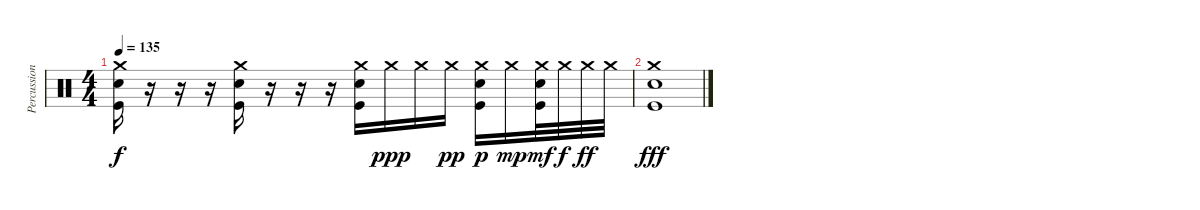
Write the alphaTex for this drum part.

\track ("Percussion" "Percussion") {instrument percussion}
\staff {score}
\articulation defaults
\ts (4 4)
\tempo 135
\clef neutral
\ks c
("Crash medium (hit)" "Snare (hit) 2" "Kick (hit)").16{dy f} r.16 r.16 r.16 ("Crash medium (hit)" "Snare (hit) 2" "Kick (hit)").16 r.16 r.16 r.16 ("Crash medium (hit)" "Snare (hit) 2" "Kick (hit)").16 "Crash medium (hit)".16{dy ppp} "Crash medium (hit)".16 "Crash medium (hit)".16{dy pp} ("Crash medium (hit)" "Snare (hit) 2" "Kick (hit)").16{dy p} "Crash medium (hit)".16{dy mp} ("Crash medium (hit)" "Snare (hit) 2" "Kick (hit)").32{dy mf} "Crash medium (hit)".32{dy f} "Crash medium (hit)".32{dy ff} "Crash medium (hit)".32 |
("Crash medium (hit)" "Snare (hit) 2" "Kick (hit)").1{dy fff}
